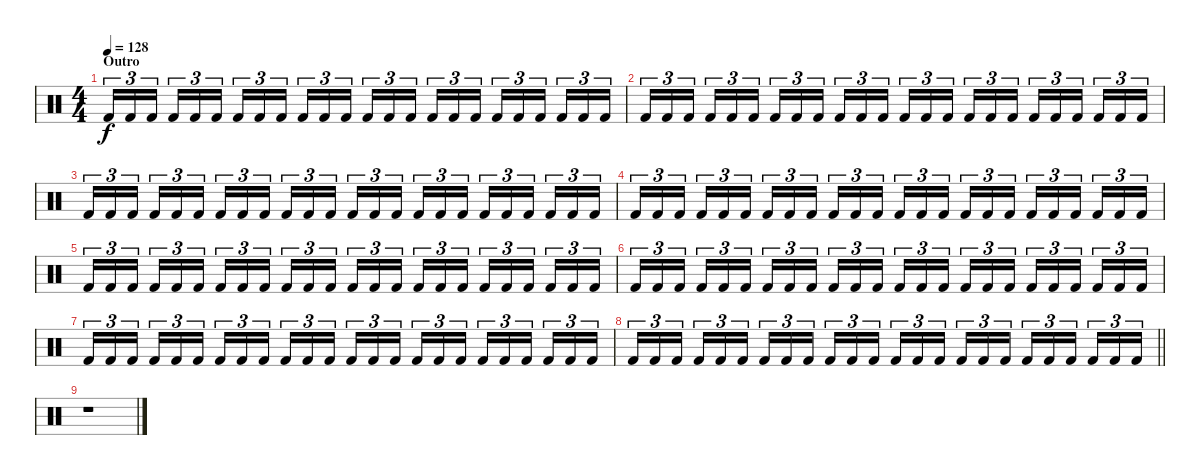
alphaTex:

\track "" {instrument percussion}
\staff {score}
\articulation defaults
\ts (4 4)
\section ("" "Outro")
\tempo 128
\clef neutral
\ks c "Kick (hit) 2".16{tu (3 2) dy f} "Kick (hit) 2".16{tu (3 2)} "Kick (hit) 2".16{tu (3 2) beam splitsecondary} "Kick (hit) 2".16{tu (3 2)} "Kick (hit) 2".16{tu (3 2)} "Kick (hit) 2".16{tu (3 2)} "Kick (hit) 2".16{tu (3 2)} "Kick (hit) 2".16{tu (3 2)} "Kick (hit) 2".16{tu (3 2) beam splitsecondary} "Kick (hit) 2".16{tu (3 2)} "Kick (hit) 2".16{tu (3 2)} "Kick (hit) 2".16{tu (3 2)} "Kick (hit) 2".16{tu (3 2)} "Kick (hit) 2".16{tu (3 2)} "Kick (hit) 2".16{tu (3 2) beam splitsecondary} "Kick (hit) 2".16{tu (3 2)} "Kick (hit) 2".16{tu (3 2)} "Kick (hit) 2".16{tu (3 2)} "Kick (hit) 2".16{tu (3 2)} "Kick (hit) 2".16{tu (3 2)} "Kick (hit) 2".16{tu (3 2) beam splitsecondary} "Kick (hit) 2".16{tu (3 2)} "Kick (hit) 2".16{tu (3 2)} "Kick (hit) 2".16{tu (3 2)}
|
"Kick (hit) 2".16{tu (3 2)} "Kick (hit) 2".16{tu (3 2)} "Kick (hit) 2".16{tu (3 2) beam splitsecondary} "Kick (hit) 2".16{tu (3 2)} "Kick (hit) 2".16{tu (3 2)} "Kick (hit) 2".16{tu (3 2)} "Kick (hit) 2".16{tu (3 2)} "Kick (hit) 2".16{tu (3 2)} "Kick (hit) 2".16{tu (3 2) beam splitsecondary} "Kick (hit) 2".16{tu (3 2)} "Kick (hit) 2".16{tu (3 2)} "Kick (hit) 2".16{tu (3 2)} "Kick (hit) 2".16{tu (3 2)} "Kick (hit) 2".16{tu (3 2)} "Kick (hit) 2".16{tu (3 2) beam splitsecondary} "Kick (hit) 2".16{tu (3 2)} "Kick (hit) 2".16{tu (3 2)} "Kick (hit) 2".16{tu (3 2)} "Kick (hit) 2".16{tu (3 2)} "Kick (hit) 2".16{tu (3 2)} "Kick (hit) 2".16{tu (3 2) beam splitsecondary} "Kick (hit) 2".16{tu (3 2)} "Kick (hit) 2".16{tu (3 2)} "Kick (hit) 2".16{tu (3 2)} |
"Kick (hit) 2".16{tu (3 2)} "Kick (hit) 2".16{tu (3 2)} "Kick (hit) 2".16{tu (3 2) beam splitsecondary} "Kick (hit) 2".16{tu (3 2)} "Kick (hit) 2".16{tu (3 2)} "Kick (hit) 2".16{tu (3 2)} "Kick (hit) 2".16{tu (3 2)} "Kick (hit) 2".16{tu (3 2)} "Kick (hit) 2".16{tu (3 2) beam splitsecondary} "Kick (hit) 2".16{tu (3 2)} "Kick (hit) 2".16{tu (3 2)} "Kick (hit) 2".16{tu (3 2)} "Kick (hit) 2".16{tu (3 2)} "Kick (hit) 2".16{tu (3 2)} "Kick (hit) 2".16{tu (3 2) beam splitsecondary} "Kick (hit) 2".16{tu (3 2)} "Kick (hit) 2".16{tu (3 2)} "Kick (hit) 2".16{tu (3 2)} "Kick (hit) 2".16{tu (3 2)} "Kick (hit) 2".16{tu (3 2)} "Kick (hit) 2".16{tu (3 2) beam splitsecondary} "Kick (hit) 2".16{tu (3 2)} "Kick (hit) 2".16{tu (3 2)} "Kick (hit) 2".16{tu (3 2)} |
"Kick (hit) 2".16{tu (3 2)} "Kick (hit) 2".16{tu (3 2)} "Kick (hit) 2".16{tu (3 2) beam splitsecondary} "Kick (hit) 2".16{tu (3 2)} "Kick (hit) 2".16{tu (3 2)} "Kick (hit) 2".16{tu (3 2)} "Kick (hit) 2".16{tu (3 2)} "Kick (hit) 2".16{tu (3 2)} "Kick (hit) 2".16{tu (3 2) beam splitsecondary} "Kick (hit) 2".16{tu (3 2)} "Kick (hit) 2".16{tu (3 2)} "Kick (hit) 2".16{tu (3 2)} "Kick (hit) 2".16{tu (3 2)} "Kick (hit) 2".16{tu (3 2)} "Kick (hit) 2".16{tu (3 2) beam splitsecondary} "Kick (hit) 2".16{tu (3 2)} "Kick (hit) 2".16{tu (3 2)} "Kick (hit) 2".16{tu (3 2)} "Kick (hit) 2".16{tu (3 2)} "Kick (hit) 2".16{tu (3 2)} "Kick (hit) 2".16{tu (3 2) beam splitsecondary} "Kick (hit) 2".16{tu (3 2)} "Kick (hit) 2".16{tu (3 2)} "Kick (hit) 2".16{tu (3 2)} |
"Kick (hit) 2".16{tu (3 2)} "Kick (hit) 2".16{tu (3 2)} "Kick (hit) 2".16{tu (3 2) beam splitsecondary} "Kick (hit) 2".16{tu (3 2)} "Kick (hit) 2".16{tu (3 2)} "Kick (hit) 2".16{tu (3 2)} "Kick (hit) 2".16{tu (3 2)} "Kick (hit) 2".16{tu (3 2)} "Kick (hit) 2".16{tu (3 2) beam splitsecondary} "Kick (hit) 2".16{tu (3 2)} "Kick (hit) 2".16{tu (3 2)} "Kick (hit) 2".16{tu (3 2)} "Kick (hit) 2".16{tu (3 2)} "Kick (hit) 2".16{tu (3 2)} "Kick (hit) 2".16{tu (3 2) beam splitsecondary} "Kick (hit) 2".16{tu (3 2)} "Kick (hit) 2".16{tu (3 2)} "Kick (hit) 2".16{tu (3 2)} "Kick (hit) 2".16{tu (3 2)} "Kick (hit) 2".16{tu (3 2)} "Kick (hit) 2".16{tu (3 2) beam splitsecondary} "Kick (hit) 2".16{tu (3 2)} "Kick (hit) 2".16{tu (3 2)} "Kick (hit) 2".16{tu (3 2)} |
"Kick (hit) 2".16{tu (3 2)} "Kick (hit) 2".16{tu (3 2)} "Kick (hit) 2".16{tu (3 2) beam splitsecondary} "Kick (hit) 2".16{tu (3 2)} "Kick (hit) 2".16{tu (3 2)} "Kick (hit) 2".16{tu (3 2)} "Kick (hit) 2".16{tu (3 2)} "Kick (hit) 2".16{tu (3 2)} "Kick (hit) 2".16{tu (3 2) beam splitsecondary} "Kick (hit) 2".16{tu (3 2)} "Kick (hit) 2".16{tu (3 2)} "Kick (hit) 2".16{tu (3 2)} "Kick (hit) 2".16{tu (3 2)} "Kick (hit) 2".16{tu (3 2)} "Kick (hit) 2".16{tu (3 2) beam splitsecondary} "Kick (hit) 2".16{tu (3 2)} "Kick (hit) 2".16{tu (3 2)} "Kick (hit) 2".16{tu (3 2)} "Kick (hit) 2".16{tu (3 2)} "Kick (hit) 2".16{tu (3 2)} "Kick (hit) 2".16{tu (3 2) beam splitsecondary} "Kick (hit) 2".16{tu (3 2)} "Kick (hit) 2".16{tu (3 2)} "Kick (hit) 2".16{tu (3 2)} |
"Kick (hit) 2".16{tu (3 2)} "Kick (hit) 2".16{tu (3 2)} "Kick (hit) 2".16{tu (3 2) beam splitsecondary} "Kick (hit) 2".16{tu (3 2)} "Kick (hit) 2".16{tu (3 2)} "Kick (hit) 2".16{tu (3 2)} "Kick (hit) 2".16{tu (3 2)} "Kick (hit) 2".16{tu (3 2)} "Kick (hit) 2".16{tu (3 2) beam splitsecondary} "Kick (hit) 2".16{tu (3 2)} "Kick (hit) 2".16{tu (3 2)} "Kick (hit) 2".16{tu (3 2)} "Kick (hit) 2".16{tu (3 2)} "Kick (hit) 2".16{tu (3 2)} "Kick (hit) 2".16{tu (3 2) beam splitsecondary} "Kick (hit) 2".16{tu (3 2)} "Kick (hit) 2".16{tu (3 2)} "Kick (hit) 2".16{tu (3 2)} "Kick (hit) 2".16{tu (3 2)} "Kick (hit) 2".16{tu (3 2)} "Kick (hit) 2".16{tu (3 2) beam splitsecondary} "Kick (hit) 2".16{tu (3 2)} "Kick (hit) 2".16{tu (3 2)} "Kick (hit) 2".16{tu (3 2)} |
\barLineRight lightlight "Kick (hit) 2".16{tu (3 2)} "Kick (hit) 2".16{tu (3 2)} "Kick (hit) 2".16{tu (3 2) beam splitsecondary} "Kick (hit) 2".16{tu (3 2)} "Kick (hit) 2".16{tu (3 2)} "Kick (hit) 2".16{tu (3 2)} "Kick (hit) 2".16{tu (3 2)} "Kick (hit) 2".16{tu (3 2)} "Kick (hit) 2".16{tu (3 2) beam splitsecondary} "Kick (hit) 2".16{tu (3 2)} "Kick (hit) 2".16{tu (3 2)} "Kick (hit) 2".16{tu (3 2)} "Kick (hit) 2".16{tu (3 2)} "Kick (hit) 2".16{tu (3 2)} "Kick (hit) 2".16{tu (3 2) beam splitsecondary} "Kick (hit) 2".16{tu (3 2)} "Kick (hit) 2".16{tu (3 2)} "Kick (hit) 2".16{tu (3 2)} "Kick (hit) 2".16{tu (3 2)} "Kick (hit) 2".16{tu (3 2)} "Kick (hit) 2".16{tu (3 2) beam splitsecondary} "Kick (hit) 2".16{tu (3 2)} "Kick (hit) 2".16{tu (3 2)} "Kick (hit) 2".16{tu (3 2)}
|
r.1
